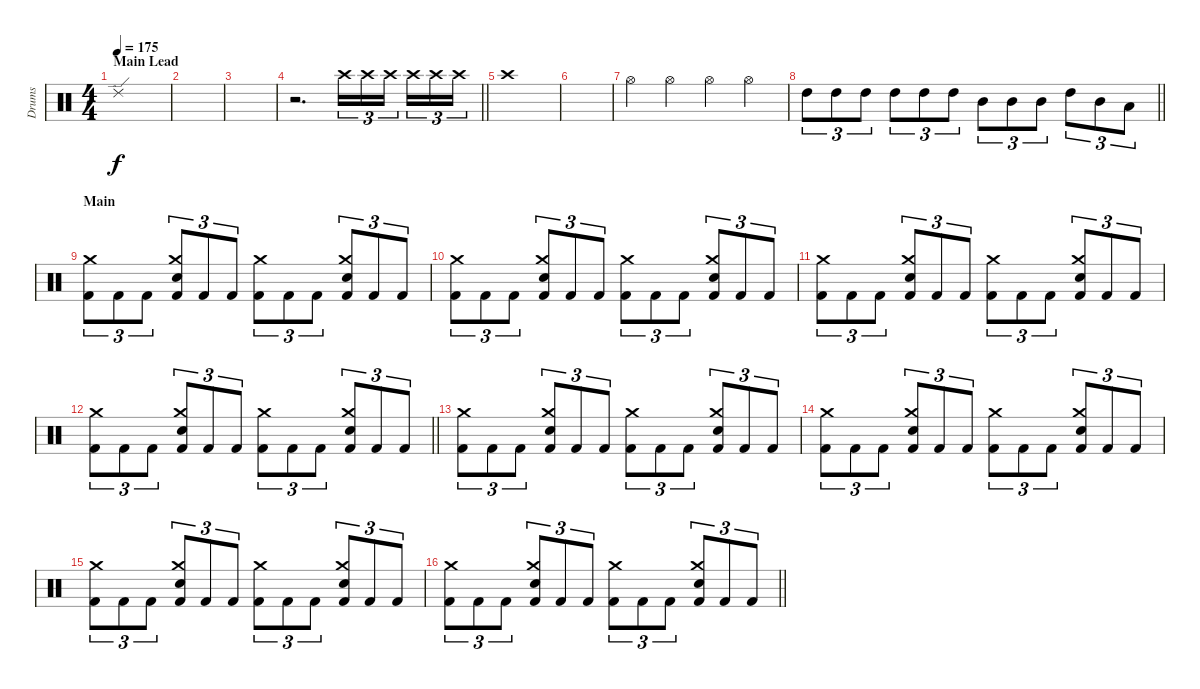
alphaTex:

\track ("Drums" "Drums") {instrument percussion}
\staff {score}
\articulation defaults
\ts (4 4)
\section ("" "Main Lead")
\tempo 175
\clef neutral
\ks c "Ride (edge) 2".1{dy f}
|
|
|
\barLineRight lightlight
r.2{d volume 0} "Crash high (hit)".16{tu (3 2) volume 13} "Crash high (hit)".16{tu (3 2)} "Crash high (hit)".16{tu (3 2) beam splitsecondary} "Crash high (hit)".16{tu (3 2)} "Crash high (hit)".16{tu (3 2)} "Crash high (hit)".16{tu (3 2)} |
\section ("" "")
"Crash high (hit)".1 |
|
"Hi-Hat (open)".4 "Hi-Hat (open)".4 "Hi-Hat (open)".4 "Hi-Hat (open)".4 |
\barLineRight lightlight "High Tom (hit)".8{tu (3 2)} "High Tom (hit)".8{tu (3 2)} "High Tom (hit)".8{tu (3 2)} "High Tom (hit)".8{tu (3 2)} "High Tom (hit)".8{tu (3 2)} "High Tom (hit)".8{tu (3 2)} "Mid Tom (hit)".8{tu (3 2)} "Mid Tom (hit)".8{tu (3 2)} "Mid Tom (hit)".8{tu (3 2)} "High Tom (hit)".8{tu (3 2)} "Mid Tom (hit)".8{tu (3 2)} "Low Tom (hit)".8{tu (3 2)}
|
\section ("" "Main")
("Kick (hit) 2" "Crash medium (hit)").8{tu (3 2)} "Kick (hit) 2".8{tu (3 2)} "Kick (hit) 2".8{tu (3 2)} ("Kick (hit) 2" "Snare (hit) 2" "Crash medium (hit)").8{tu (3 2)} "Kick (hit) 2".8{tu (3 2)} "Kick (hit) 2".8{tu (3 2)} ("Kick (hit) 2" "Crash medium (hit)").8{tu (3 2)} "Kick (hit) 2".8{tu (3 2)} "Kick (hit) 2".8{tu (3 2)} ("Kick (hit) 2" "Snare (hit) 2" "Crash medium (hit)").8{tu (3 2)} "Kick (hit) 2".8{tu (3 2)} "Kick (hit) 2".8{tu (3 2)} |
("Kick (hit) 2" "Crash medium (hit)").8{tu (3 2)} "Kick (hit) 2".8{tu (3 2)} "Kick (hit) 2".8{tu (3 2)} ("Kick (hit) 2" "Snare (hit) 2" "Crash medium (hit)").8{tu (3 2)} "Kick (hit) 2".8{tu (3 2)} "Kick (hit) 2".8{tu (3 2)} ("Kick (hit) 2" "Crash medium (hit)").8{tu (3 2)} "Kick (hit) 2".8{tu (3 2)} "Kick (hit) 2".8{tu (3 2)} ("Kick (hit) 2" "Snare (hit) 2" "Crash medium (hit)").8{tu (3 2)} "Kick (hit) 2".8{tu (3 2)} "Kick (hit) 2".8{tu (3 2)} |
("Kick (hit) 2" "Crash medium (hit)").8{tu (3 2)} "Kick (hit) 2".8{tu (3 2)} "Kick (hit) 2".8{tu (3 2)} ("Kick (hit) 2" "Snare (hit) 2" "Crash medium (hit)").8{tu (3 2)} "Kick (hit) 2".8{tu (3 2)} "Kick (hit) 2".8{tu (3 2)} ("Kick (hit) 2" "Crash medium (hit)").8{tu (3 2)} "Kick (hit) 2".8{tu (3 2)} "Kick (hit) 2".8{tu (3 2)} ("Kick (hit) 2" "Snare (hit) 2" "Crash medium (hit)").8{tu (3 2)} "Kick (hit) 2".8{tu (3 2)} "Kick (hit) 2".8{tu (3 2)} |
\barLineRight lightlight
("Kick (hit) 2" "Crash medium (hit)").8{tu (3 2)} "Kick (hit) 2".8{tu (3 2)} "Kick (hit) 2".8{tu (3 2)} ("Kick (hit) 2" "Snare (hit) 2" "Crash medium (hit)").8{tu (3 2)} "Kick (hit) 2".8{tu (3 2)} "Kick (hit) 2".8{tu (3 2)} ("Kick (hit) 2" "Crash medium (hit)").8{tu (3 2)} "Kick (hit) 2".8{tu (3 2)} "Kick (hit) 2".8{tu (3 2)} ("Kick (hit) 2" "Snare (hit) 2" "Crash medium (hit)").8{tu (3 2)} "Kick (hit) 2".8{tu (3 2)} "Kick (hit) 2".8{tu (3 2)} |
("Kick (hit) 2" "Crash medium (hit)").8{tu (3 2)} "Kick (hit) 2".8{tu (3 2)} "Kick (hit) 2".8{tu (3 2)} ("Kick (hit) 2" "Snare (hit) 2" "Crash medium (hit)").8{tu (3 2)} "Kick (hit) 2".8{tu (3 2)} "Kick (hit) 2".8{tu (3 2)} ("Kick (hit) 2" "Crash medium (hit)").8{tu (3 2)} "Kick (hit) 2".8{tu (3 2)} "Kick (hit) 2".8{tu (3 2)} ("Kick (hit) 2" "Snare (hit) 2" "Crash medium (hit)").8{tu (3 2)} "Kick (hit) 2".8{tu (3 2)} "Kick (hit) 2".8{tu (3 2)} |
("Kick (hit) 2" "Crash medium (hit)").8{tu (3 2)} "Kick (hit) 2".8{tu (3 2)} "Kick (hit) 2".8{tu (3 2)} ("Kick (hit) 2" "Snare (hit) 2" "Crash medium (hit)").8{tu (3 2)} "Kick (hit) 2".8{tu (3 2)} "Kick (hit) 2".8{tu (3 2)} ("Kick (hit) 2" "Crash medium (hit)").8{tu (3 2)} "Kick (hit) 2".8{tu (3 2)} "Kick (hit) 2".8{tu (3 2)} ("Kick (hit) 2" "Snare (hit) 2" "Crash medium (hit)").8{tu (3 2)} "Kick (hit) 2".8{tu (3 2)} "Kick (hit) 2".8{tu (3 2)} |
("Kick (hit) 2" "Crash medium (hit)").8{tu (3 2)} "Kick (hit) 2".8{tu (3 2)} "Kick (hit) 2".8{tu (3 2)} ("Kick (hit) 2" "Snare (hit) 2" "Crash medium (hit)").8{tu (3 2)} "Kick (hit) 2".8{tu (3 2)} "Kick (hit) 2".8{tu (3 2)} ("Kick (hit) 2" "Crash medium (hit)").8{tu (3 2)} "Kick (hit) 2".8{tu (3 2)} "Kick (hit) 2".8{tu (3 2)} ("Kick (hit) 2" "Snare (hit) 2" "Crash medium (hit)").8{tu (3 2)} "Kick (hit) 2".8{tu (3 2)} "Kick (hit) 2".8{tu (3 2)} |
\barLineRight lightlight
("Kick (hit) 2" "Crash medium (hit)").8{tu (3 2)} "Kick (hit) 2".8{tu (3 2)} "Kick (hit) 2".8{tu (3 2)} ("Kick (hit) 2" "Snare (hit) 2" "Crash medium (hit)").8{tu (3 2)} "Kick (hit) 2".8{tu (3 2)} "Kick (hit) 2".8{tu (3 2)} ("Kick (hit) 2" "Crash medium (hit)").8{tu (3 2)} "Kick (hit) 2".8{tu (3 2)} "Kick (hit) 2".8{tu (3 2)} ("Kick (hit) 2" "Snare (hit) 2" "Crash medium (hit)").8{tu (3 2)} "Kick (hit) 2".8{tu (3 2)} "Kick (hit) 2".8{tu (3 2)}
